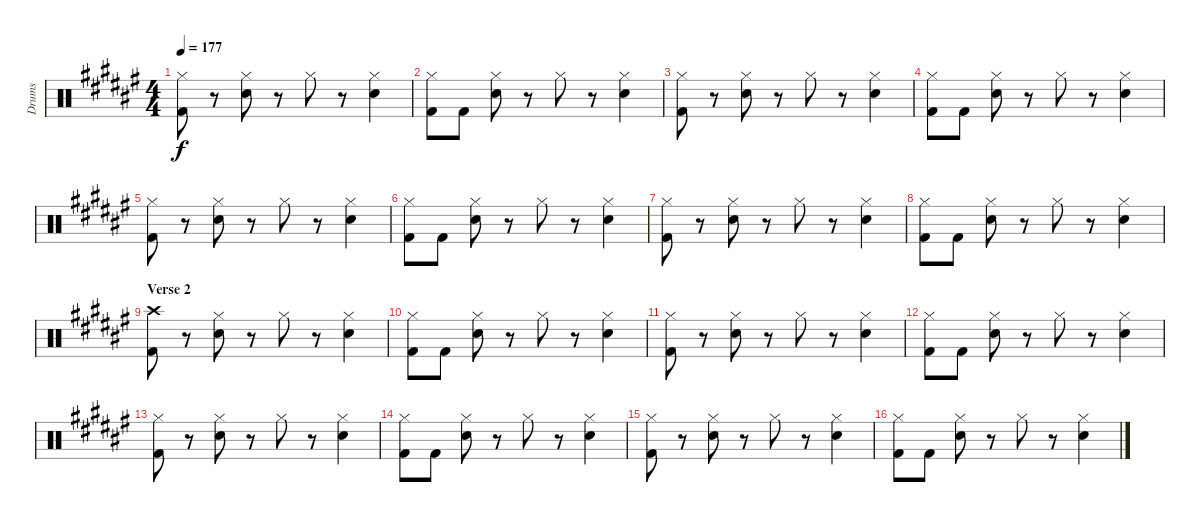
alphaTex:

\track ("Drums" "Drums") {instrument percussion}
\staff {score}
\articulation defaults
\ts (4 4)
\tempo 177
\clef neutral
\ks d#minor
("Hi-Hat (closed)" "Kick (hit) 2").8{dy f} r.8 ("Hi-Hat (closed)" "Snare (hit) 2").8 r.8 "Hi-Hat (closed)".8 r.8 ("Hi-Hat (closed)" "Snare (hit) 2").4 |
("Hi-Hat (closed)" "Kick (hit) 2").8 "Kick (hit) 2".8 ("Hi-Hat (closed)" "Snare (hit) 2").8 r.8 "Hi-Hat (closed)".8 r.8 ("Hi-Hat (closed)" "Snare (hit) 2").4 |
("Hi-Hat (closed)" "Kick (hit) 2").8 r.8 ("Hi-Hat (closed)" "Snare (hit) 2").8 r.8 "Hi-Hat (closed)".8 r.8 ("Hi-Hat (closed)" "Snare (hit) 2").4 |
("Hi-Hat (closed)" "Kick (hit) 2").8 "Kick (hit) 2".8 ("Hi-Hat (closed)" "Snare (hit) 2").8 r.8 "Hi-Hat (closed)".8 r.8 ("Hi-Hat (closed)" "Snare (hit) 2").4 |
("Hi-Hat (closed)" "Kick (hit) 2").8 r.8 ("Hi-Hat (closed)" "Snare (hit) 2").8 r.8 "Hi-Hat (closed)".8 r.8 ("Hi-Hat (closed)" "Snare (hit) 2").4 |
("Hi-Hat (closed)" "Kick (hit) 2").8 "Kick (hit) 2".8 ("Hi-Hat (closed)" "Snare (hit) 2").8 r.8 "Hi-Hat (closed)".8 r.8 ("Hi-Hat (closed)" "Snare (hit) 2").4 |
("Hi-Hat (closed)" "Kick (hit) 2").8 r.8 ("Hi-Hat (closed)" "Snare (hit) 2").8 r.8 "Hi-Hat (closed)".8 r.8 ("Hi-Hat (closed)" "Snare (hit) 2").4 |
("Hi-Hat (closed)" "Kick (hit) 2").8 "Kick (hit) 2".8 ("Hi-Hat (closed)" "Snare (hit) 2").8 r.8 "Hi-Hat (closed)".8 r.8 ("Hi-Hat (closed)" "Snare (hit) 2").4 |
\section ("" "Verse 2")
("Crash high (hit)" "Kick (hit) 2").8 r.8 ("Hi-Hat (closed)" "Snare (hit) 2").8 r.8 "Hi-Hat (closed)".8 r.8 ("Hi-Hat (closed)" "Snare (hit) 2").4 |
("Hi-Hat (closed)" "Kick (hit) 2").8 "Kick (hit) 2".8 ("Hi-Hat (closed)" "Snare (hit) 2").8 r.8 "Hi-Hat (closed)".8 r.8 ("Hi-Hat (closed)" "Snare (hit) 2").4 |
("Hi-Hat (closed)" "Kick (hit) 2").8 r.8 ("Hi-Hat (closed)" "Snare (hit) 2").8 r.8 "Hi-Hat (closed)".8 r.8 ("Hi-Hat (closed)" "Snare (hit) 2").4 |
("Hi-Hat (closed)" "Kick (hit) 2").8 "Kick (hit) 2".8 ("Hi-Hat (closed)" "Snare (hit) 2").8 r.8 "Hi-Hat (closed)".8 r.8 ("Hi-Hat (closed)" "Snare (hit) 2").4 |
("Hi-Hat (closed)" "Kick (hit) 2").8 r.8 ("Hi-Hat (closed)" "Snare (hit) 2").8 r.8 "Hi-Hat (closed)".8 r.8 ("Hi-Hat (closed)" "Snare (hit) 2").4 |
("Hi-Hat (closed)" "Kick (hit) 2").8 "Kick (hit) 2".8 ("Hi-Hat (closed)" "Snare (hit) 2").8 r.8 "Hi-Hat (closed)".8 r.8 ("Hi-Hat (closed)" "Snare (hit) 2").4 |
("Hi-Hat (closed)" "Kick (hit) 2").8 r.8 ("Hi-Hat (closed)" "Snare (hit) 2").8 r.8 "Hi-Hat (closed)".8 r.8 ("Hi-Hat (closed)" "Snare (hit) 2").4 |
("Hi-Hat (closed)" "Kick (hit) 2").8 "Kick (hit) 2".8 ("Hi-Hat (closed)" "Snare (hit) 2").8 r.8 "Hi-Hat (closed)".8 r.8 ("Hi-Hat (closed)" "Snare (hit) 2").4
